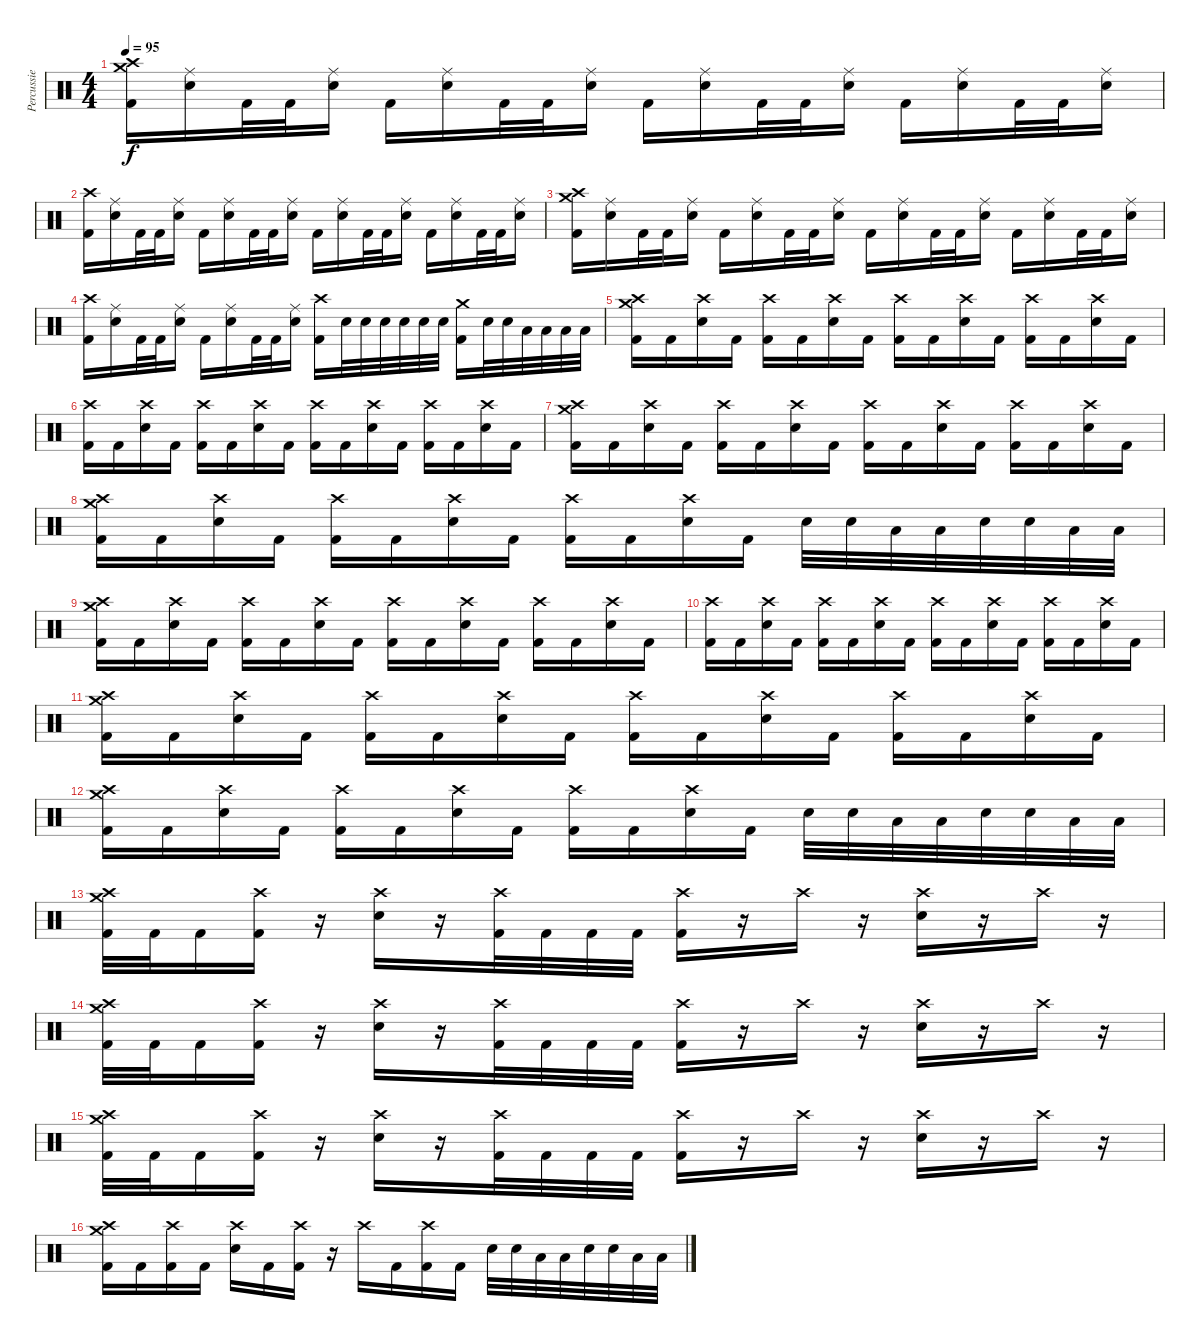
\track ("Percussie" "Percussie") {instrument percussion}
\staff {score}
\articulation defaults
\ts (4 4)
\tempo 95
\clef neutral
\ks c
("Crash medium (hit)" "Crash high (hit)" "Kick (hit) 2").16{dy f} ("Ride (middle)" "Electric Snare (hit)").16 "Kick (hit) 2".32 "Kick (hit) 2".32 ("Ride (middle)" "Electric Snare (hit)").16 "Kick (hit) 2".16 ("Ride (middle)" "Electric Snare (hit)").16 "Kick (hit) 2".32 "Kick (hit) 2".32 ("Ride (middle)" "Electric Snare (hit)").16 "Kick (hit) 2".16 ("Ride (middle)" "Electric Snare (hit)").16 "Kick (hit) 2".32 "Kick (hit) 2".32 ("Ride (middle)" "Electric Snare (hit)").16 "Kick (hit) 2".16 ("Ride (middle)" "Electric Snare (hit)").16 "Kick (hit) 2".32 "Kick (hit) 2".32 ("Ride (middle)" "Electric Snare (hit)").16 |
("Crash high (hit)" "Kick (hit) 2").16 ("Ride (middle)" "Electric Snare (hit)").16 "Kick (hit) 2".32 "Kick (hit) 2".32 ("Ride (middle)" "Electric Snare (hit)").16 "Kick (hit) 2".16 ("Ride (middle)" "Electric Snare (hit)").16 "Kick (hit) 2".32 "Kick (hit) 2".32 ("Ride (middle)" "Electric Snare (hit)").16 "Kick (hit) 2".16 ("Ride (middle)" "Electric Snare (hit)").16 "Kick (hit) 2".32 "Kick (hit) 2".32 ("Ride (middle)" "Electric Snare (hit)").16 "Kick (hit) 2".16 ("Ride (middle)" "Electric Snare (hit)").16 "Kick (hit) 2".32 "Kick (hit) 2".32 ("Ride (middle)" "Electric Snare (hit)").16 |
("Crash medium (hit)" "Crash high (hit)" "Kick (hit) 2").16 ("Ride (middle)" "Electric Snare (hit)").16 "Kick (hit) 2".32 "Kick (hit) 2".32 ("Ride (middle)" "Electric Snare (hit)").16 "Kick (hit) 2".16 ("Ride (middle)" "Electric Snare (hit)").16 "Kick (hit) 2".32 "Kick (hit) 2".32 ("Ride (middle)" "Electric Snare (hit)").16 "Kick (hit) 2".16 ("Ride (middle)" "Electric Snare (hit)").16 "Kick (hit) 2".32 "Kick (hit) 2".32 ("Ride (middle)" "Electric Snare (hit)").16 "Kick (hit) 2".16 ("Ride (middle)" "Electric Snare (hit)").16 "Kick (hit) 2".32 "Kick (hit) 2".32 ("Ride (middle)" "Electric Snare (hit)").16 |
("Crash high (hit)" "Kick (hit) 2").16 ("Ride (middle)" "Electric Snare (hit)").16 "Kick (hit) 2".32 "Kick (hit) 2".32 ("Ride (middle)" "Electric Snare (hit)").16 "Kick (hit) 2".16 ("Ride (middle)" "Electric Snare (hit)").16 "Kick (hit) 2".32 "Kick (hit) 2".32 ("Ride (middle)" "Electric Snare (hit)").16 ("Crash high (hit)" "Kick (hit) 2").16 "Electric Snare (hit)".32 "Electric Snare (hit)".32 "Electric Snare (hit)".32 "Electric Snare (hit)".32 "Electric Snare (hit)".32 "Electric Snare (hit)".32 ("Crash medium (hit)" "Kick (hit) 2").16 "Electric Snare (hit)".32 "Electric Snare (hit)".32 "Low Tom (hit)".32 "Low Tom (hit)".32 "Low Floor Tom (hit)".32 "Low Floor Tom (hit)".32 |
("Crash medium (hit)" "Crash high (hit)" "Kick (hit) 2").16 "Kick (hit) 2".16 ("Crash high (hit)" "Electric Snare (hit)").16 "Kick (hit) 2".16 ("Crash high (hit)" "Kick (hit) 2").16 "Kick (hit) 2".16 ("Crash high (hit)" "Electric Snare (hit)").16 "Kick (hit) 2".16 ("Crash high (hit)" "Kick (hit) 2").16 "Kick (hit) 2".16 ("Crash high (hit)" "Electric Snare (hit)").16 "Kick (hit) 2".16 ("Crash high (hit)" "Kick (hit) 2").16 "Kick (hit) 2".16 ("Crash high (hit)" "Electric Snare (hit)").16 "Kick (hit) 2".16 |
("Crash high (hit)" "Kick (hit) 2").16 "Kick (hit) 2".16 ("Crash high (hit)" "Electric Snare (hit)").16 "Kick (hit) 2".16 ("Crash high (hit)" "Kick (hit) 2").16 "Kick (hit) 2".16 ("Crash high (hit)" "Electric Snare (hit)").16 "Kick (hit) 2".16 ("Crash high (hit)" "Kick (hit) 2").16 "Kick (hit) 2".16 ("Crash high (hit)" "Electric Snare (hit)").16 "Kick (hit) 2".16 ("Crash high (hit)" "Kick (hit) 2").16 "Kick (hit) 2".16 ("Crash high (hit)" "Electric Snare (hit)").16 "Kick (hit) 2".16 |
("Crash medium (hit)" "Crash high (hit)" "Kick (hit) 2").16 "Kick (hit) 2".16 ("Crash high (hit)" "Electric Snare (hit)").16 "Kick (hit) 2".16 ("Crash high (hit)" "Kick (hit) 2").16 "Kick (hit) 2".16 ("Crash high (hit)" "Electric Snare (hit)").16 "Kick (hit) 2".16 ("Crash high (hit)" "Kick (hit) 2").16 "Kick (hit) 2".16 ("Crash high (hit)" "Electric Snare (hit)").16 "Kick (hit) 2".16 ("Crash high (hit)" "Kick (hit) 2").16 "Kick (hit) 2".16 ("Crash high (hit)" "Electric Snare (hit)").16 "Kick (hit) 2".16 |
("Crash medium (hit)" "Crash high (hit)" "Kick (hit) 2").16 "Kick (hit) 2".16 ("Crash high (hit)" "Electric Snare (hit)").16 "Kick (hit) 2".16 ("Crash high (hit)" "Kick (hit) 2").16 "Kick (hit) 2".16 ("Crash high (hit)" "Electric Snare (hit)").16 "Kick (hit) 2".16 ("Crash high (hit)" "Kick (hit) 2").16 "Kick (hit) 2".16 ("Crash high (hit)" "Electric Snare (hit)").16 "Kick (hit) 2".16 "Electric Snare (hit)".32 "Electric Snare (hit)".32 "Low Tom (hit)".32 "Low Tom (hit)".32 "Electric Snare (hit)".32 "Electric Snare (hit)".32 "Low Floor Tom (hit)".32 "Low Floor Tom (hit)".32 |
("Crash medium (hit)" "Crash high (hit)" "Kick (hit) 2").16 "Kick (hit) 2".16 ("Crash high (hit)" "Electric Snare (hit)").16 "Kick (hit) 2".16 ("Crash high (hit)" "Kick (hit) 2").16 "Kick (hit) 2".16 ("Crash high (hit)" "Electric Snare (hit)").16 "Kick (hit) 2".16 ("Crash high (hit)" "Kick (hit) 2").16 "Kick (hit) 2".16 ("Crash high (hit)" "Electric Snare (hit)").16 "Kick (hit) 2".16 ("Crash high (hit)" "Kick (hit) 2").16 "Kick (hit) 2".16 ("Crash high (hit)" "Electric Snare (hit)").16 "Kick (hit) 2".16 |
("Crash high (hit)" "Kick (hit) 2").16 "Kick (hit) 2".16 ("Crash high (hit)" "Electric Snare (hit)").16 "Kick (hit) 2".16 ("Crash high (hit)" "Kick (hit) 2").16 "Kick (hit) 2".16 ("Crash high (hit)" "Electric Snare (hit)").16 "Kick (hit) 2".16 ("Crash high (hit)" "Kick (hit) 2").16 "Kick (hit) 2".16 ("Crash high (hit)" "Electric Snare (hit)").16 "Kick (hit) 2".16 ("Crash high (hit)" "Kick (hit) 2").16 "Kick (hit) 2".16 ("Crash high (hit)" "Electric Snare (hit)").16 "Kick (hit) 2".16 |
("Crash medium (hit)" "Crash high (hit)" "Kick (hit) 2").16 "Kick (hit) 2".16 ("Crash high (hit)" "Electric Snare (hit)").16 "Kick (hit) 2".16 ("Crash high (hit)" "Kick (hit) 2").16 "Kick (hit) 2".16 ("Crash high (hit)" "Electric Snare (hit)").16 "Kick (hit) 2".16 ("Crash high (hit)" "Kick (hit) 2").16 "Kick (hit) 2".16 ("Crash high (hit)" "Electric Snare (hit)").16 "Kick (hit) 2".16 ("Crash high (hit)" "Kick (hit) 2").16 "Kick (hit) 2".16 ("Crash high (hit)" "Electric Snare (hit)").16 "Kick (hit) 2".16 |
("Crash medium (hit)" "Crash high (hit)" "Kick (hit) 2").16 "Kick (hit) 2".16 ("Crash high (hit)" "Electric Snare (hit)").16 "Kick (hit) 2".16 ("Crash high (hit)" "Kick (hit) 2").16 "Kick (hit) 2".16 ("Crash high (hit)" "Electric Snare (hit)").16 "Kick (hit) 2".16 ("Crash high (hit)" "Kick (hit) 2").16 "Kick (hit) 2".16 ("Crash high (hit)" "Electric Snare (hit)").16 "Kick (hit) 2".16 "Electric Snare (hit)".32 "Electric Snare (hit)".32 "Low Tom (hit)".32 "Low Tom (hit)".32 "Electric Snare (hit)".32 "Electric Snare (hit)".32 "Low Floor Tom (hit)".32 "Low Floor Tom (hit)".32 |
("Crash medium (hit)" "Crash high (hit)" "Kick (hit) 2").32 "Kick (hit) 2".32 "Kick (hit) 2".16 ("Crash high (hit)" "Kick (hit) 2").16 r.16 ("Crash high (hit)" "Electric Snare (hit)").16 r.16 ("Crash high (hit)" "Kick (hit) 2").32 "Kick (hit) 2".32 "Kick (hit) 2".32 "Kick (hit) 2".32 ("Crash high (hit)" "Kick (hit) 2").16 r.16 "Crash high (hit)".16 r.16 ("Crash high (hit)" "Electric Snare (hit)").16 r.16 "Crash high (hit)".16 r.16 |
("Crash medium (hit)" "Crash high (hit)" "Kick (hit) 2").32 "Kick (hit) 2".32 "Kick (hit) 2".16 ("Crash high (hit)" "Kick (hit) 2").16 r.16 ("Crash high (hit)" "Electric Snare (hit)").16 r.16 ("Crash high (hit)" "Kick (hit) 2").32 "Kick (hit) 2".32 "Kick (hit) 2".32 "Kick (hit) 2".32 ("Crash high (hit)" "Kick (hit) 2").16 r.16 "Crash high (hit)".16 r.16 ("Crash high (hit)" "Electric Snare (hit)").16 r.16 "Crash high (hit)".16 r.16 |
("Crash medium (hit)" "Crash high (hit)" "Kick (hit) 2").32 "Kick (hit) 2".32 "Kick (hit) 2".16 ("Crash high (hit)" "Kick (hit) 2").16 r.16 ("Crash high (hit)" "Electric Snare (hit)").16 r.16 ("Crash high (hit)" "Kick (hit) 2").32 "Kick (hit) 2".32 "Kick (hit) 2".32 "Kick (hit) 2".32 ("Crash high (hit)" "Kick (hit) 2").16 r.16 "Crash high (hit)".16 r.16 ("Crash high (hit)" "Electric Snare (hit)").16 r.16 "Crash high (hit)".16 r.16 |
("Crash medium (hit)" "Crash high (hit)" "Kick (hit) 2").16 "Kick (hit) 2".16 ("Crash high (hit)" "Kick (hit) 2").16 "Kick (hit) 2".16 ("Crash high (hit)" "Electric Snare (hit)").16 "Kick (hit) 2".16 ("Crash high (hit)" "Kick (hit) 2").16 r.16 "Crash high (hit)".16 "Kick (hit) 2".16 ("Crash high (hit)" "Kick (hit) 2").16 "Kick (hit) 2".16 "Electric Snare (hit)".32 "Electric Snare (hit)".32 "Low Tom (hit)".32 "Low Tom (hit)".32 "Electric Snare (hit)".32 "Electric Snare (hit)".32 "Low Floor Tom (hit)".32 "Low Floor Tom (hit)".32
